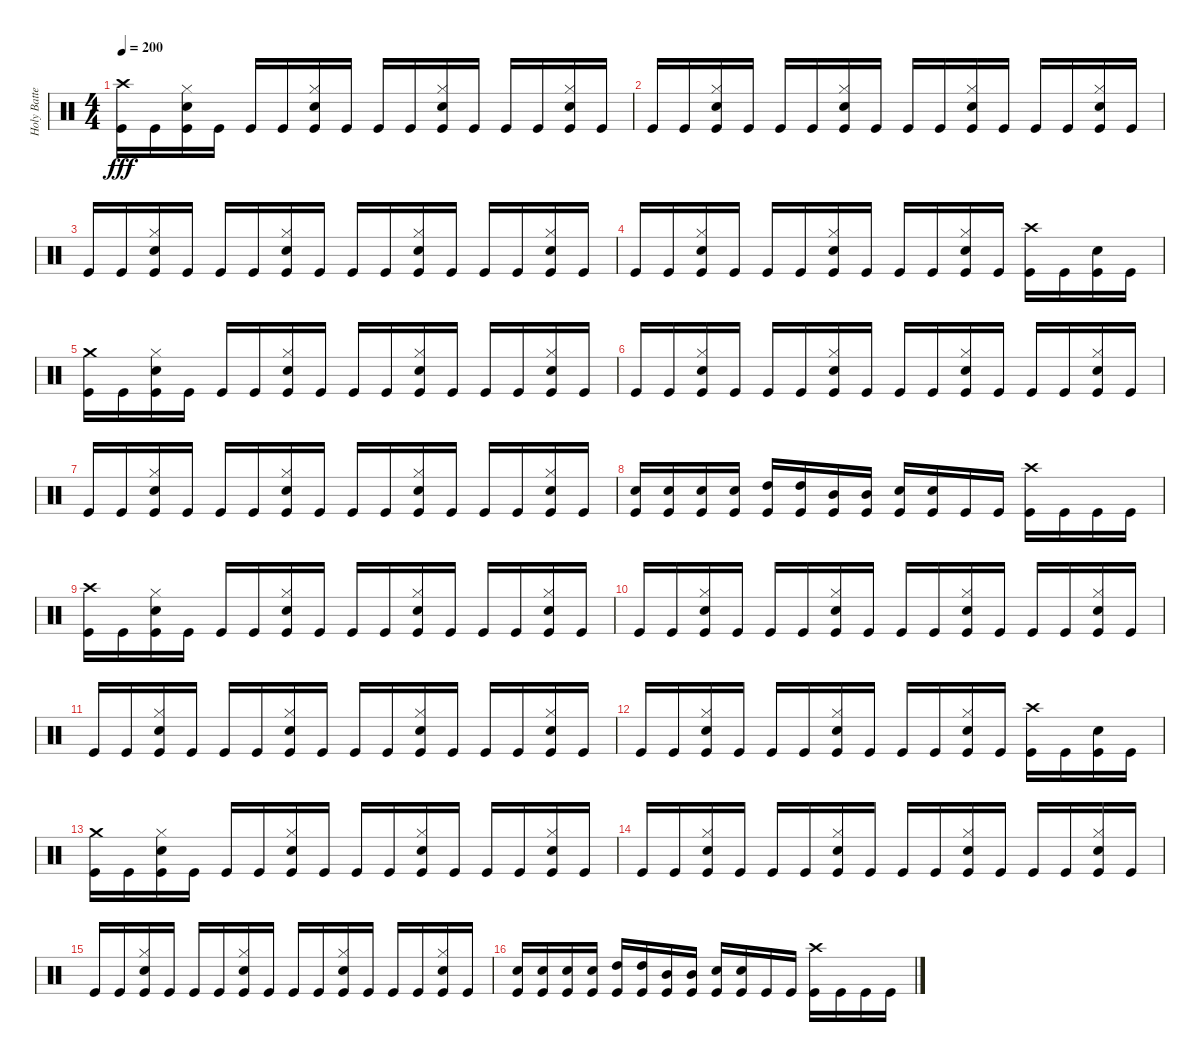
\track ("Holy Batteur" "Holy Batte") {instrument percussion}
\staff {score}
\articulation defaults
\ts (4 4)
\tempo 200
\clef neutral
\ks c
("Crash high (hit)" "Kick (hit)").16{dy fff} "Kick (hit)".16 ("Hi-Hat (closed)" "Electric Snare (hit)" "Kick (hit)").16 "Kick (hit)".16 "Kick (hit)".16 "Kick (hit)".16 ("Hi-Hat (closed)" "Electric Snare (hit)" "Kick (hit)").16 "Kick (hit)".16 "Kick (hit)".16 "Kick (hit)".16 ("Hi-Hat (closed)" "Electric Snare (hit)" "Kick (hit)").16 "Kick (hit)".16 "Kick (hit)".16 "Kick (hit)".16 ("Hi-Hat (closed)" "Electric Snare (hit)" "Kick (hit)").16 "Kick (hit)".16 |
"Kick (hit)".16 "Kick (hit)".16 ("Hi-Hat (closed)" "Electric Snare (hit)" "Kick (hit)").16 "Kick (hit)".16 "Kick (hit)".16 "Kick (hit)".16 ("Hi-Hat (closed)" "Electric Snare (hit)" "Kick (hit)").16 "Kick (hit)".16 "Kick (hit)".16 "Kick (hit)".16 ("Hi-Hat (closed)" "Electric Snare (hit)" "Kick (hit)").16 "Kick (hit)".16 "Kick (hit)".16 "Kick (hit)".16 ("Hi-Hat (closed)" "Electric Snare (hit)" "Kick (hit)").16 "Kick (hit)".16 |
"Kick (hit)".16 "Kick (hit)".16 ("Hi-Hat (closed)" "Electric Snare (hit)" "Kick (hit)").16 "Kick (hit)".16 "Kick (hit)".16 "Kick (hit)".16 ("Hi-Hat (closed)" "Electric Snare (hit)" "Kick (hit)").16 "Kick (hit)".16 "Kick (hit)".16 "Kick (hit)".16 ("Hi-Hat (closed)" "Electric Snare (hit)" "Kick (hit)").16 "Kick (hit)".16 "Kick (hit)".16 "Kick (hit)".16 ("Hi-Hat (closed)" "Electric Snare (hit)" "Kick (hit)").16 "Kick (hit)".16 |
"Kick (hit)".16 "Kick (hit)".16 ("Hi-Hat (closed)" "Electric Snare (hit)" "Kick (hit)").16 "Kick (hit)".16 "Kick (hit)".16 "Kick (hit)".16 ("Hi-Hat (closed)" "Electric Snare (hit)" "Kick (hit)").16 "Kick (hit)".16 "Kick (hit)".16 "Kick (hit)".16 ("Hi-Hat (closed)" "Electric Snare (hit)" "Kick (hit)").16 "Kick (hit)".16 ("Crash high (hit)" "Kick (hit)").16 "Kick (hit)".16 ("Electric Snare (hit)" "Kick (hit)").16 "Kick (hit)".16 |
("Crash medium (hit)" "Kick (hit)").16 "Kick (hit)".16 ("Hi-Hat (closed)" "Electric Snare (hit)" "Kick (hit)").16 "Kick (hit)".16 "Kick (hit)".16 "Kick (hit)".16 ("Hi-Hat (closed)" "Electric Snare (hit)" "Kick (hit)").16 "Kick (hit)".16 "Kick (hit)".16 "Kick (hit)".16 ("Hi-Hat (closed)" "Electric Snare (hit)" "Kick (hit)").16 "Kick (hit)".16 "Kick (hit)".16 "Kick (hit)".16 ("Hi-Hat (closed)" "Electric Snare (hit)" "Kick (hit)").16 "Kick (hit)".16 |
"Kick (hit)".16 "Kick (hit)".16 ("Hi-Hat (closed)" "Electric Snare (hit)" "Kick (hit)").16 "Kick (hit)".16 "Kick (hit)".16 "Kick (hit)".16 ("Hi-Hat (closed)" "Electric Snare (hit)" "Kick (hit)").16 "Kick (hit)".16 "Kick (hit)".16 "Kick (hit)".16 ("Hi-Hat (closed)" "Electric Snare (hit)" "Kick (hit)").16 "Kick (hit)".16 "Kick (hit)".16 "Kick (hit)".16 ("Hi-Hat (closed)" "Electric Snare (hit)" "Kick (hit)").16 "Kick (hit)".16 |
"Kick (hit)".16 "Kick (hit)".16 ("Hi-Hat (closed)" "Electric Snare (hit)" "Kick (hit)").16 "Kick (hit)".16 "Kick (hit)".16 "Kick (hit)".16 ("Hi-Hat (closed)" "Electric Snare (hit)" "Kick (hit)").16 "Kick (hit)".16 "Kick (hit)".16 "Kick (hit)".16 ("Hi-Hat (closed)" "Electric Snare (hit)" "Kick (hit)").16 "Kick (hit)".16 "Kick (hit)".16 "Kick (hit)".16 ("Hi-Hat (closed)" "Electric Snare (hit)" "Kick (hit)").16 "Kick (hit)".16 |
("Electric Snare (hit)" "Kick (hit)").16 ("Electric Snare (hit)" "Kick (hit)").16 ("Electric Snare (hit)" "Kick (hit)").16 ("Electric Snare (hit)" "Kick (hit)").16 ("High Tom (hit)" "Kick (hit)").16 ("High Tom (hit)" "Kick (hit)").16 ("Mid Tom (hit)" "Kick (hit)").16 ("Mid Tom (hit)" "Kick (hit)").16 ("Electric Snare (hit)" "Kick (hit)").16 ("Electric Snare (hit)" "Kick (hit)").16 "Kick (hit)".16 "Kick (hit)".16 ("Crash high (hit)" "Kick (hit)").16 "Kick (hit)".16 "Kick (hit)".16 "Kick (hit)".16 |
("Crash high (hit)" "Kick (hit)").16 "Kick (hit)".16 ("Hi-Hat (closed)" "Electric Snare (hit)" "Kick (hit)").16 "Kick (hit)".16 "Kick (hit)".16 "Kick (hit)".16 ("Hi-Hat (closed)" "Electric Snare (hit)" "Kick (hit)").16 "Kick (hit)".16 "Kick (hit)".16 "Kick (hit)".16 ("Hi-Hat (closed)" "Electric Snare (hit)" "Kick (hit)").16 "Kick (hit)".16 "Kick (hit)".16 "Kick (hit)".16 ("Hi-Hat (closed)" "Electric Snare (hit)" "Kick (hit)").16 "Kick (hit)".16 |
"Kick (hit)".16 "Kick (hit)".16 ("Hi-Hat (closed)" "Electric Snare (hit)" "Kick (hit)").16 "Kick (hit)".16 "Kick (hit)".16 "Kick (hit)".16 ("Hi-Hat (closed)" "Electric Snare (hit)" "Kick (hit)").16 "Kick (hit)".16 "Kick (hit)".16 "Kick (hit)".16 ("Hi-Hat (closed)" "Electric Snare (hit)" "Kick (hit)").16 "Kick (hit)".16 "Kick (hit)".16 "Kick (hit)".16 ("Hi-Hat (closed)" "Electric Snare (hit)" "Kick (hit)").16 "Kick (hit)".16 |
"Kick (hit)".16 "Kick (hit)".16 ("Hi-Hat (closed)" "Electric Snare (hit)" "Kick (hit)").16 "Kick (hit)".16 "Kick (hit)".16 "Kick (hit)".16 ("Hi-Hat (closed)" "Electric Snare (hit)" "Kick (hit)").16 "Kick (hit)".16 "Kick (hit)".16 "Kick (hit)".16 ("Hi-Hat (closed)" "Electric Snare (hit)" "Kick (hit)").16 "Kick (hit)".16 "Kick (hit)".16 "Kick (hit)".16 ("Hi-Hat (closed)" "Electric Snare (hit)" "Kick (hit)").16 "Kick (hit)".16 |
"Kick (hit)".16 "Kick (hit)".16 ("Hi-Hat (closed)" "Electric Snare (hit)" "Kick (hit)").16 "Kick (hit)".16 "Kick (hit)".16 "Kick (hit)".16 ("Hi-Hat (closed)" "Electric Snare (hit)" "Kick (hit)").16 "Kick (hit)".16 "Kick (hit)".16 "Kick (hit)".16 ("Hi-Hat (closed)" "Electric Snare (hit)" "Kick (hit)").16 "Kick (hit)".16 ("Crash high (hit)" "Kick (hit)").16 "Kick (hit)".16 ("Electric Snare (hit)" "Kick (hit)").16 "Kick (hit)".16 |
("Crash medium (hit)" "Kick (hit)").16 "Kick (hit)".16 ("Hi-Hat (closed)" "Electric Snare (hit)" "Kick (hit)").16 "Kick (hit)".16 "Kick (hit)".16 "Kick (hit)".16 ("Hi-Hat (closed)" "Electric Snare (hit)" "Kick (hit)").16 "Kick (hit)".16 "Kick (hit)".16 "Kick (hit)".16 ("Hi-Hat (closed)" "Electric Snare (hit)" "Kick (hit)").16 "Kick (hit)".16 "Kick (hit)".16 "Kick (hit)".16 ("Hi-Hat (closed)" "Electric Snare (hit)" "Kick (hit)").16 "Kick (hit)".16 |
"Kick (hit)".16 "Kick (hit)".16 ("Hi-Hat (closed)" "Electric Snare (hit)" "Kick (hit)").16 "Kick (hit)".16 "Kick (hit)".16 "Kick (hit)".16 ("Hi-Hat (closed)" "Electric Snare (hit)" "Kick (hit)").16 "Kick (hit)".16 "Kick (hit)".16 "Kick (hit)".16 ("Hi-Hat (closed)" "Electric Snare (hit)" "Kick (hit)").16 "Kick (hit)".16 "Kick (hit)".16 "Kick (hit)".16 ("Hi-Hat (closed)" "Electric Snare (hit)" "Kick (hit)").16 "Kick (hit)".16 |
"Kick (hit)".16 "Kick (hit)".16 ("Hi-Hat (closed)" "Electric Snare (hit)" "Kick (hit)").16 "Kick (hit)".16 "Kick (hit)".16 "Kick (hit)".16 ("Hi-Hat (closed)" "Electric Snare (hit)" "Kick (hit)").16 "Kick (hit)".16 "Kick (hit)".16 "Kick (hit)".16 ("Hi-Hat (closed)" "Electric Snare (hit)" "Kick (hit)").16 "Kick (hit)".16 "Kick (hit)".16 "Kick (hit)".16 ("Hi-Hat (closed)" "Electric Snare (hit)" "Kick (hit)").16 "Kick (hit)".16 |
("Electric Snare (hit)" "Kick (hit)").16 ("Electric Snare (hit)" "Kick (hit)").16 ("Electric Snare (hit)" "Kick (hit)").16 ("Electric Snare (hit)" "Kick (hit)").16 ("High Tom (hit)" "Kick (hit)").16 ("High Tom (hit)" "Kick (hit)").16 ("Mid Tom (hit)" "Kick (hit)").16 ("Mid Tom (hit)" "Kick (hit)").16 ("Electric Snare (hit)" "Kick (hit)").16 ("Electric Snare (hit)" "Kick (hit)").16 "Kick (hit)".16 "Kick (hit)".16 ("Crash high (hit)" "Kick (hit)").16 "Kick (hit)".16 "Kick (hit)".16 "Kick (hit)".16
